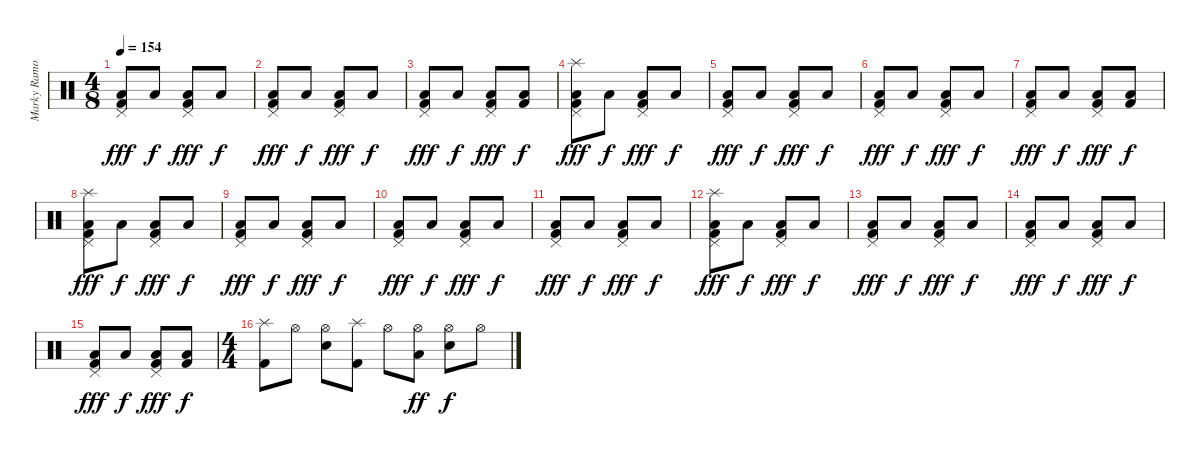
\track ("Marky Ramone - Drums" "Marky Ramo") {instrument percussion}
\staff {score}
\articulation defaults
\ts (4 8)
\tempo 154
\clef neutral
\ks c
("Low Floor Tom (hit)" "Pedal Hi-Hat (hit)" "Kick (hit) 2").8{dy fff} "Low Floor Tom (hit)".8{dy f} ("Low Floor Tom (hit)" "Pedal Hi-Hat (hit)" "Kick (hit) 2").8{dy fff} "Low Floor Tom (hit)".8{dy f} |
("Low Floor Tom (hit)" "Pedal Hi-Hat (hit)" "Kick (hit) 2").8{dy fff} "Low Floor Tom (hit)".8{dy f} ("Low Floor Tom (hit)" "Pedal Hi-Hat (hit)" "Kick (hit) 2").8{dy fff} "Low Floor Tom (hit)".8{dy f} |
("Low Floor Tom (hit)" "Pedal Hi-Hat (hit)" "Kick (hit) 2").8{dy fff} "Low Floor Tom (hit)".8{dy f} ("Low Floor Tom (hit)" "Pedal Hi-Hat (hit)" "Kick (hit) 2").8{dy fff} ("Low Floor Tom (hit)" "Kick (hit) 2").8{dy f} |
("Low Floor Tom (hit)" "Splash (hit)" "Pedal Hi-Hat (hit)" "Kick (hit) 2").8{dy fff} "Low Floor Tom (hit)".8{dy f} ("Low Floor Tom (hit)" "Pedal Hi-Hat (hit)" "Kick (hit) 2").8{dy fff} "Low Floor Tom (hit)".8{dy f} |
("Low Floor Tom (hit)" "Pedal Hi-Hat (hit)" "Kick (hit) 2").8{dy fff} "Low Floor Tom (hit)".8{dy f} ("Low Floor Tom (hit)" "Pedal Hi-Hat (hit)" "Kick (hit) 2").8{dy fff} "Low Floor Tom (hit)".8{dy f} |
("Low Floor Tom (hit)" "Pedal Hi-Hat (hit)" "Kick (hit) 2").8{dy fff} "Low Floor Tom (hit)".8{dy f} ("Low Floor Tom (hit)" "Pedal Hi-Hat (hit)" "Kick (hit) 2").8{dy fff} "Low Floor Tom (hit)".8{dy f} |
("Low Floor Tom (hit)" "Pedal Hi-Hat (hit)" "Kick (hit) 2").8{dy fff} "Low Floor Tom (hit)".8{dy f} ("Low Floor Tom (hit)" "Pedal Hi-Hat (hit)" "Kick (hit) 2").8{dy fff} ("Low Floor Tom (hit)" "Kick (hit) 2").8{dy f} |
("Low Floor Tom (hit)" "Splash (hit)" "Pedal Hi-Hat (hit)" "Kick (hit) 2").8{dy fff} "Low Floor Tom (hit)".8{dy f} ("Low Floor Tom (hit)" "Pedal Hi-Hat (hit)" "Kick (hit) 2").8{dy fff} "Low Floor Tom (hit)".8{dy f} |
("Low Floor Tom (hit)" "Pedal Hi-Hat (hit)" "Kick (hit) 2").8{dy fff} "Low Floor Tom (hit)".8{dy f} ("Low Floor Tom (hit)" "Pedal Hi-Hat (hit)" "Kick (hit) 2").8{dy fff} "Low Floor Tom (hit)".8{dy f} |
("Low Floor Tom (hit)" "Pedal Hi-Hat (hit)" "Kick (hit) 2").8{dy fff} "Low Floor Tom (hit)".8{dy f} ("Low Floor Tom (hit)" "Pedal Hi-Hat (hit)" "Kick (hit) 2").8{dy fff} "Low Floor Tom (hit)".8{dy f} |
("Low Floor Tom (hit)" "Pedal Hi-Hat (hit)" "Kick (hit) 2").8{dy fff} "Low Floor Tom (hit)".8{dy f} ("Low Floor Tom (hit)" "Pedal Hi-Hat (hit)" "Kick (hit) 2").8{dy fff} "Low Floor Tom (hit)".8{dy f} |
("Low Floor Tom (hit)" "Splash (hit)" "Pedal Hi-Hat (hit)" "Kick (hit) 2").8{dy fff} "Low Floor Tom (hit)".8{dy f} ("Low Floor Tom (hit)" "Pedal Hi-Hat (hit)" "Kick (hit) 2").8{dy fff} "Low Floor Tom (hit)".8{dy f} |
("Low Floor Tom (hit)" "Pedal Hi-Hat (hit)" "Kick (hit) 2").8{dy fff} "Low Floor Tom (hit)".8{dy f} ("Low Floor Tom (hit)" "Pedal Hi-Hat (hit)" "Kick (hit) 2").8{dy fff} "Low Floor Tom (hit)".8{dy f} |
("Low Floor Tom (hit)" "Pedal Hi-Hat (hit)" "Kick (hit) 2").8{dy fff} "Low Floor Tom (hit)".8{dy f} ("Low Floor Tom (hit)" "Pedal Hi-Hat (hit)" "Kick (hit) 2").8{dy fff} "Low Floor Tom (hit)".8{dy f} |
("Low Floor Tom (hit)" "Pedal Hi-Hat (hit)" "Kick (hit) 2").8{dy fff} "Low Floor Tom (hit)".8{dy f} ("Low Floor Tom (hit)" "Pedal Hi-Hat (hit)" "Kick (hit) 2").8{dy fff} ("Low Floor Tom (hit)" "Kick (hit) 2").8{dy f} |
\ts (4 4)
("Kick (hit) 2" "Splash (hit)").8 "Hi-Hat (open)".8 ("Snare (hit) 2" "Hi-Hat (open)").8 ("Kick (hit) 2" "Splash (hit)").8 "Hi-Hat (open)".8 ("Low Floor Tom (hit)" "Hi-Hat (open)").8{dy ff} ("Snare (hit) 2" "Hi-Hat (open)").8{dy f} "Hi-Hat (open)".8
